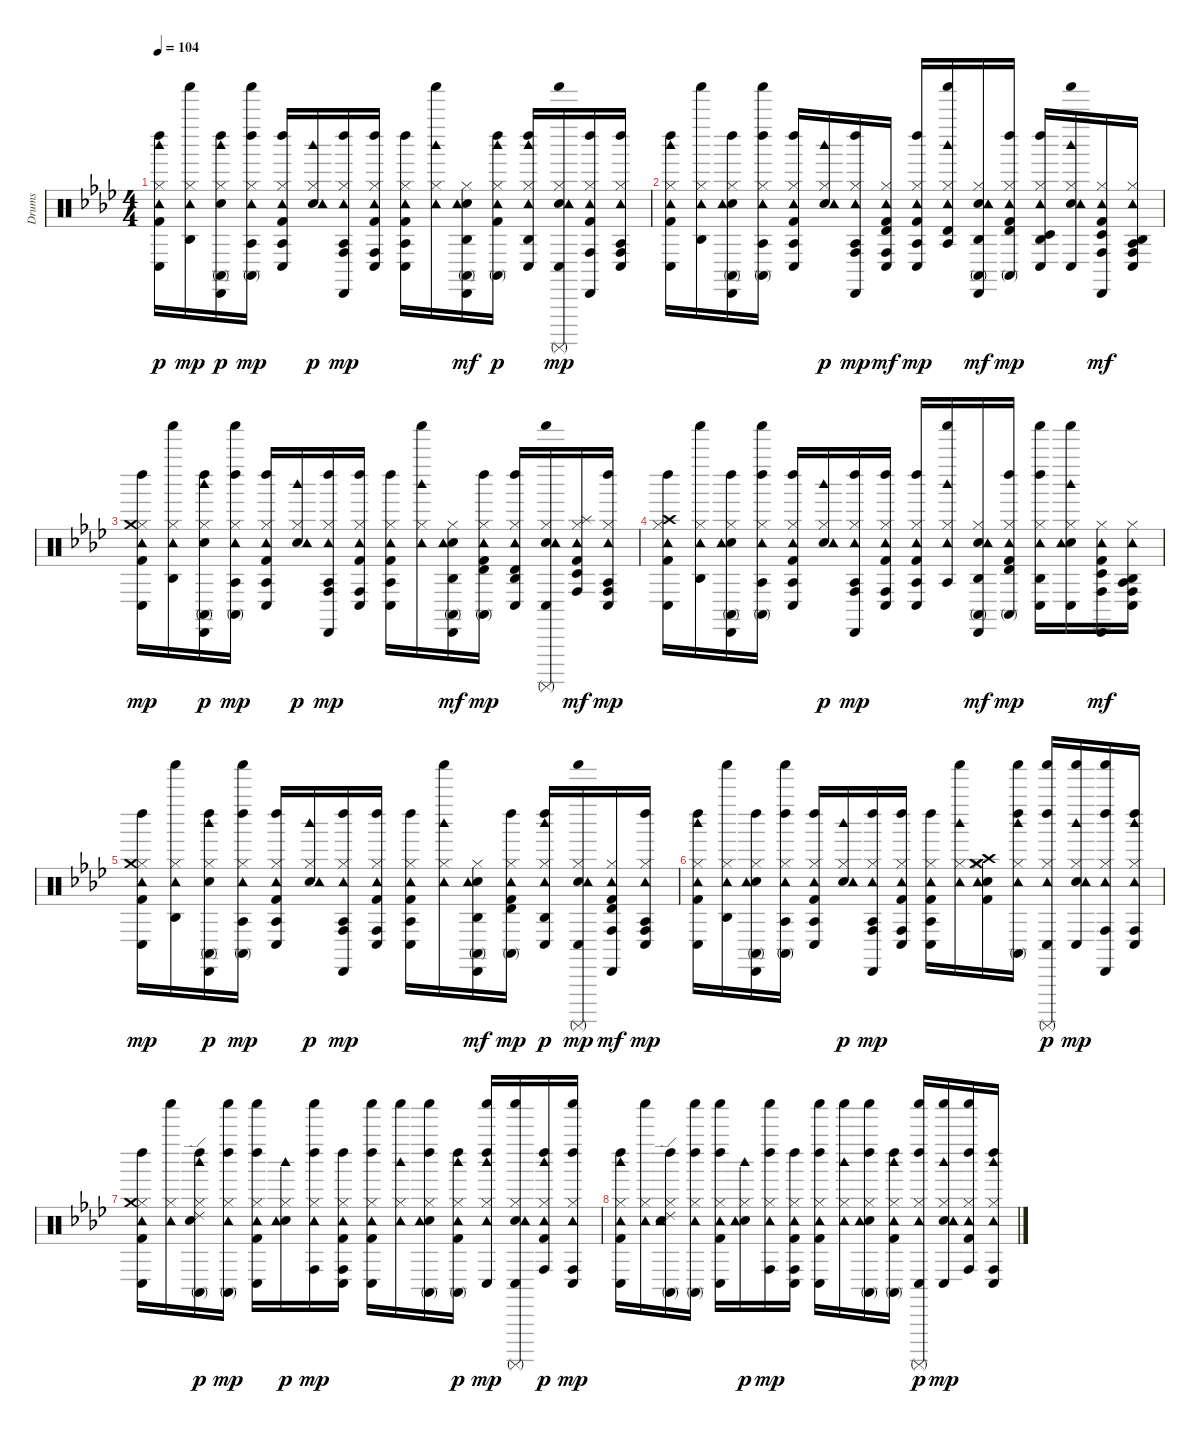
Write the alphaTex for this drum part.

\track ("Drums" "Drums") {instrument percussion}
\staff {score}
\articulation defaults
\ts (4 4)
\tempo 104
\clef neutral
\ks ab
("Kick (hit) 2" "Hi-Hat (closed)" "Tambourine (hit)" "Conga low (hit)" "Left Maraca (hit)" "Woodblock high (hit)").16{dy p} ("Hi-Hat (closed)" "Tambourine (hit)" "Agogo high (hit)" "Shaker (hit)").16{dy mp} ("Hand Clap (hit)" "Hi-Hat (closed)" "Conga high (mute)" "Cabasa (hit)" "Left Maraca (hit)" "Woodblock high (hit)").16{dy p} ("Hi-Hat (closed)" "Tambourine (hit)" "Conga high (mute)" "Agogo tow (hit)" "Left Maraca (hit)" "Shaker (hit)").16{dy mp} ("Kick (hit) 2" "Hi-Hat (closed)" "Tambourine (hit)" "Conga low (hit)" "Agogo tow (hit)" "Left Maraca (hit)").16 ("Hand Clap (hit)" "Hi-Hat (closed)" "Tambourine (hit)" "Woodblock high (hit)").16{dy p} ("Hi-Hat (closed)" "Tambourine (hit)" "Conga high (hit)" "Agogo tow (hit)" "Cabasa (hit)" "Left Maraca (hit)").16{dy mp} ("Kick (hit) 2" "Hi-Hat (closed)" "Tambourine (hit)" "Conga high (hit)" "Conga low (hit)" "Left Maraca (hit)").16 ("Kick (hit) 2" "Hi-Hat (closed)" "Tambourine (hit)" "Conga low (hit)" "Agogo tow (hit)" "Left Maraca (hit)").16 ("Hi-Hat (closed)" "Tambourine (hit)" "Woodblock high (hit)" "Shaker (hit)").16 ("Hand Clap (hit)" "Hi-Hat (closed)" "Tambourine (hit)" "Conga high (mute)" "Agogo high (hit)" "Cabasa (hit)").16{dy mf} ("Kick (hit) 2" "Hi-Hat (closed)" "Tambourine (hit)" "Conga high (mute)" "Left Maraca (hit)" "Woodblock high (hit)").16{dy p} ("Hi-Hat (closed)" "Tambourine (hit)" "Conga low (hit)" "Agogo high (hit)" "Left Maraca (hit)" "Woodblock high (hit)").16 ("Hand Clap (hit)" "Hi-Hat (closed)" "Tambourine (hit)" "Conga low (hit)" "Shaker (hit)" "Surdo (mute)").16{dy mp} ("Kick (hit) 2" "Hi-Hat (closed)" "Tambourine (hit)" "Conga high (hit)" "Cabasa (hit)" "Left Maraca (hit)").16 ("Hi-Hat (closed)" "Tambourine (hit)" "Conga high (hit)" "Conga low (hit)" "Agogo tow (hit)" "Left Maraca (hit)").16 |
("Kick (hit) 2" "Hi-Hat (closed)" "Tambourine (hit)" "Conga low (hit)" "Left Maraca (hit)" "Woodblock high (hit)").16 ("Hi-Hat (closed)" "Tambourine (hit)" "Agogo high (hit)" "Shaker (hit)").16 ("Hand Clap (hit)" "Hi-Hat (closed)" "Tambourine (hit)" "Conga high (mute)" "Cabasa (hit)" "Left Maraca (hit)").16 ("Hi-Hat (closed)" "Tambourine (hit)" "Conga high (mute)" "Agogo tow (hit)" "Left Maraca (hit)" "Shaker (hit)").16 ("Kick (hit) 2" "Hi-Hat (closed)" "Tambourine (hit)" "Conga low (hit)" "Agogo tow (hit)" "Left Maraca (hit)").16 ("Hand Clap (hit)" "Hi-Hat (closed)" "Tambourine (hit)" "Woodblock high (hit)").16{dy p} ("Hi-Hat (closed)" "Tambourine (hit)" "Conga high (hit)" "Agogo tow (hit)" "Cabasa (hit)" "Left Maraca (hit)").16{dy mp} ("Kick (hit) 2" "Hi-Hat (closed)" "Tambourine (hit)" "Conga high (hit)" "Conga low (hit)" "Timbale high (hit)").16{dy mf} ("Kick (hit) 2" "Hi-Hat (closed)" "Tambourine (hit)" "Conga low (hit)" "Agogo tow (hit)" "Left Maraca (hit)").16{dy mp} ("Hi-Hat (closed)" "Tambourine (hit)" "Timbale high (hit)" "Agogo tow (hit)" "Woodblock high (hit)" "Shaker (hit)").16 ("Hand Clap (hit)" "Hi-Hat (closed)" "Tambourine (hit)" "Conga high (mute)" "Agogo high (hit)" "Cabasa (hit)").16{dy mf} ("Kick (hit) 2" "Hi-Hat (closed)" "Tambourine (hit)" "Conga high (mute)" "Timbale high (hit)" "Left Maraca (hit)").16{dy mp} ("Hi-Hat (closed)" "Tambourine (hit)" "Conga low (hit)" "Timbale low (hit)" "Agogo high (hit)" "Left Maraca (hit)").16 ("Hand Clap (hit)" "Hi-Hat (closed)" "Tambourine (hit)" "Conga low (hit)" "Woodblock high (hit)" "Shaker (hit)").16 ("Kick (hit) 2" "Hi-Hat (closed)" "Tambourine (hit)" "Conga high (hit)" "Timbale low (hit)" "Cabasa (hit)").16{dy mf} ("Hi-Hat (closed)" "Tambourine (hit)" "Conga high (hit)" "Conga low (hit)" "Agogo high (hit)" "Agogo tow (hit)").16 |
("Kick (hit) 2" "Hi-Hat (closed)" "Tambourine (hit)" "Crash medium (hit)" "Conga low (hit)" "Left Maraca (hit)").16{dy mp} ("Hi-Hat (closed)" "Tambourine (hit)" "Agogo high (hit)" "Shaker (hit)").16 ("Hand Clap (hit)" "Hi-Hat (closed)" "Conga high (mute)" "Cabasa (hit)" "Left Maraca (hit)" "Woodblock high (hit)").16{dy p} ("Hi-Hat (closed)" "Tambourine (hit)" "Conga high (mute)" "Agogo tow (hit)" "Left Maraca (hit)" "Shaker (hit)").16{dy mp} ("Kick (hit) 2" "Hi-Hat (closed)" "Tambourine (hit)" "Conga low (hit)" "Agogo tow (hit)" "Left Maraca (hit)").16 ("Hand Clap (hit)" "Hi-Hat (closed)" "Tambourine (hit)" "Woodblock high (hit)").16{dy p} ("Hi-Hat (closed)" "Tambourine (hit)" "Conga high (hit)" "Agogo tow (hit)" "Cabasa (hit)" "Left Maraca (hit)").16{dy mp} ("Kick (hit) 2" "Hi-Hat (closed)" "Tambourine (hit)" "Conga high (hit)" "Conga low (hit)" "Left Maraca (hit)").16 ("Kick (hit) 2" "Hi-Hat (closed)" "Tambourine (hit)" "Conga low (hit)" "Agogo tow (hit)" "Left Maraca (hit)").16 ("Hi-Hat (closed)" "Tambourine (hit)" "Woodblock high (hit)" "Shaker (hit)").16 ("Hand Clap (hit)" "Hi-Hat (closed)" "Tambourine (hit)" "Conga high (mute)" "Agogo high (hit)" "Cabasa (hit)").16{dy mf} ("Kick (hit) 2" "Hi-Hat (closed)" "Tambourine (hit)" "Conga high (mute)" "Timbale high (hit)" "Left Maraca (hit)").16{dy mp} ("Hi-Hat (closed)" "Tambourine (hit)" "Conga low (hit)" "Timbale high (hit)" "Agogo high (hit)" "Left Maraca (hit)").16 ("Hand Clap (hit)" "Hi-Hat (closed)" "Tambourine (hit)" "Conga low (hit)" "Shaker (hit)" "Surdo (mute)").16 ("Kick (hit) 2" "Hi-Hat (closed)" "Tambourine (hit)" "Splash (hit)" "Conga high (hit)" "Timbale low (hit)").16{dy mf} ("Hi-Hat (closed)" "Tambourine (hit)" "Conga high (hit)" "Conga low (hit)" "Agogo tow (hit)" "Left Maraca (hit)").16{dy mp} |
("Kick (hit) 2" "Hi-Hat (closed)" "Crash high (hit)" "Tambourine (hit)" "Conga low (hit)" "Left Maraca (hit)").16 ("Hi-Hat (closed)" "Tambourine (hit)" "Agogo high (hit)" "Shaker (hit)").16 ("Hand Clap (hit)" "Hi-Hat (closed)" "Tambourine (hit)" "Conga high (mute)" "Cabasa (hit)" "Left Maraca (hit)").16 ("Hi-Hat (closed)" "Tambourine (hit)" "Conga high (mute)" "Agogo tow (hit)" "Left Maraca (hit)" "Shaker (hit)").16 ("Kick (hit) 2" "Hi-Hat (closed)" "Tambourine (hit)" "Conga low (hit)" "Agogo tow (hit)" "Left Maraca (hit)").16 ("Hand Clap (hit)" "Hi-Hat (closed)" "Tambourine (hit)" "Woodblock high (hit)").16{dy p} ("Hi-Hat (closed)" "Tambourine (hit)" "Conga high (hit)" "Agogo tow (hit)" "Cabasa (hit)" "Left Maraca (hit)").16{dy mp} ("Kick (hit) 2" "Hi-Hat (closed)" "Tambourine (hit)" "Conga high (hit)" "Conga low (hit)" "Left Maraca (hit)").16 ("Kick (hit) 2" "Hi-Hat (closed)" "Tambourine (hit)" "Conga low (hit)" "Agogo tow (hit)" "Left Maraca (hit)").16 ("Hi-Hat (closed)" "Tambourine (hit)" "Agogo tow (hit)" "Woodblock high (hit)" "Shaker (hit)").16 ("Hand Clap (hit)" "Hi-Hat (closed)" "Tambourine (hit)" "Conga high (mute)" "Agogo high (hit)" "Cabasa (hit)").16{dy mf} ("Kick (hit) 2" "Hi-Hat (closed)" "Tambourine (hit)" "Conga high (mute)" "Timbale high (hit)" "Left Maraca (hit)").16{dy mp} ("Hi-Hat (closed)" "Tambourine (hit)" "Conga low (hit)" "Agogo high (hit)" "Left Maraca (hit)" "Shaker (hit)").16 ("Hand Clap (hit)" "Hi-Hat (closed)" "Tambourine (hit)" "Conga low (hit)" "Woodblock high (hit)" "Shaker (hit)").16 ("Kick (hit) 2" "Hi-Hat (closed)" "Tambourine (hit)" "Conga high (hit)" "Timbale low (hit)" "Cabasa (hit)").16{dy mf} ("Hi-Hat (closed)" "Tambourine (hit)" "Conga high (hit)" "Conga low (hit)" "Agogo high (hit)" "Agogo tow (hit)").16 |
("Kick (hit) 2" "Hi-Hat (closed)" "Tambourine (hit)" "Crash medium (hit)" "Conga low (hit)" "Left Maraca (hit)").16{dy mp} ("Hi-Hat (closed)" "Tambourine (hit)" "Agogo high (hit)" "Shaker (hit)").16 ("Hand Clap (hit)" "Hi-Hat (closed)" "Conga high (mute)" "Cabasa (hit)" "Left Maraca (hit)" "Woodblock high (hit)").16{dy p} ("Hi-Hat (closed)" "Tambourine (hit)" "Conga high (mute)" "Agogo tow (hit)" "Left Maraca (hit)" "Shaker (hit)").16{dy mp} ("Kick (hit) 2" "Hi-Hat (closed)" "Tambourine (hit)" "Conga low (hit)" "Agogo tow (hit)" "Left Maraca (hit)").16 ("Hand Clap (hit)" "Hi-Hat (closed)" "Tambourine (hit)" "Woodblock high (hit)").16{dy p} ("Hi-Hat (closed)" "Tambourine (hit)" "Conga high (hit)" "Agogo tow (hit)" "Cabasa (hit)" "Left Maraca (hit)").16{dy mp} ("Kick (hit) 2" "Hi-Hat (closed)" "Tambourine (hit)" "Conga high (hit)" "Conga low (hit)" "Left Maraca (hit)").16 ("Kick (hit) 2" "Hi-Hat (closed)" "Tambourine (hit)" "Conga low (hit)" "Agogo tow (hit)" "Left Maraca (hit)").16 ("Hi-Hat (closed)" "Tambourine (hit)" "Woodblock high (hit)" "Shaker (hit)").16 ("Hand Clap (hit)" "Hi-Hat (closed)" "Tambourine (hit)" "Conga high (mute)" "Agogo high (hit)" "Cabasa (hit)").16{dy mf} ("Kick (hit) 2" "Hi-Hat (closed)" "Tambourine (hit)" "Conga high (mute)" "Timbale high (hit)" "Left Maraca (hit)").16{dy mp} ("Hi-Hat (closed)" "Tambourine (hit)" "Conga low (hit)" "Agogo high (hit)" "Left Maraca (hit)" "Woodblock high (hit)").16{dy p} ("Hand Clap (hit)" "Hi-Hat (closed)" "Tambourine (hit)" "Conga low (hit)" "Shaker (hit)" "Surdo (mute)").16{dy mp} ("Kick (hit) 2" "Hi-Hat (closed)" "Tambourine (hit)" "Conga high (hit)" "Timbale high (hit)" "Cabasa (hit)").16{dy mf} ("Hi-Hat (closed)" "Tambourine (hit)" "Conga high (hit)" "Conga low (hit)" "Agogo tow (hit)" "Left Maraca (hit)").16{dy mp} |
("Kick (hit) 2" "Hi-Hat (closed)" "Tambourine (hit)" "Conga low (hit)" "Left Maraca (hit)" "Woodblock high (hit)").16 ("Hi-Hat (closed)" "Tambourine (hit)" "Agogo high (hit)" "Shaker (hit)").16 ("Hand Clap (hit)" "Hi-Hat (closed)" "Tambourine (hit)" "Conga high (mute)" "Cabasa (hit)" "Left Maraca (hit)").16 ("Hi-Hat (closed)" "Tambourine (hit)" "Conga high (mute)" "Agogo tow (hit)" "Left Maraca (hit)" "Shaker (hit)").16 ("Kick (hit) 2" "Hi-Hat (closed)" "Tambourine (hit)" "Conga low (hit)" "Agogo tow (hit)" "Left Maraca (hit)").16 ("Hand Clap (hit)" "Hi-Hat (closed)" "Tambourine (hit)" "Woodblock high (hit)").16{dy p} ("Hi-Hat (closed)" "Tambourine (hit)" "Conga high (hit)" "Agogo tow (hit)" "Cabasa (hit)" "Left Maraca (hit)").16{dy mp} ("Kick (hit) 2" "Hi-Hat (closed)" "Tambourine (hit)" "Conga high (hit)" "Conga low (hit)" "Left Maraca (hit)").16 ("Kick (hit) 2" "Hi-Hat (closed)" "Tambourine (hit)" "Conga low (hit)" "Agogo tow (hit)" "Left Maraca (hit)").16 ("Hi-Hat (closed)" "Tambourine (hit)" "Woodblock high (hit)" "Shaker (hit)").16 ("Kick (hit) 2" "Hand Clap (hit)" "Hi-Hat (closed)" "Crash high (hit)" "Tambourine (hit)" "Crash medium (hit)").16 ("Hi-Hat (closed)" "Tambourine (hit)" "Conga high (mute)" "Left Maraca (hit)" "Woodblock high (hit)" "Shaker (hit)").16 ("Hi-Hat (closed)" "Tambourine (hit)" "Conga low (hit)" "Left Maraca (hit)" "Shaker (hit)" "Surdo (mute)").16{dy p} ("Hand Clap (hit)" "Hi-Hat (closed)" "Tambourine (hit)" "Conga low (hit)" "Woodblock high (hit)" "Shaker (hit)").16{dy mp} ("Hi-Hat (closed)" "Tambourine (hit)" "Conga high (hit)" "Cabasa (hit)" "Left Maraca (hit)" "Shaker (hit)").16 ("Hi-Hat (closed)" "Tambourine (hit)" "Conga high (hit)" "Conga low (hit)" "Left Maraca (hit)" "Woodblock high (hit)").16 |
("Kick (hit) 2" "Hi-Hat (closed)" "Tambourine (hit)" "Crash medium (hit)" "Conga low (hit)" "Left Maraca (hit)").16 ("Hi-Hat (closed)" "Tambourine (hit)" "Shaker (hit)").16 ("Hand Clap (hit)" "Hi-Hat (closed)" "Ride (edge) 2" "Conga high (mute)" "Left Maraca (hit)" "Woodblock high (hit)").16{dy p} ("Hi-Hat (closed)" "Tambourine (hit)" "Conga high (mute)" "Left Maraca (hit)" "Shaker (hit)").16{dy mp} ("Kick (hit) 2" "Hi-Hat (closed)" "Tambourine (hit)" "Conga low (hit)" "Left Maraca (hit)" "Shaker (hit)").16 ("Hand Clap (hit)" "Hi-Hat (closed)" "Tambourine (hit)" "Woodblock high (hit)").16{dy p} ("Hi-Hat (closed)" "Tambourine (hit)" "Conga high (hit)" "Left Maraca (hit)" "Shaker (hit)").16{dy mp} ("Kick (hit) 2" "Hi-Hat (closed)" "Tambourine (hit)" "Conga high (hit)" "Conga low (hit)" "Left Maraca (hit)").16 ("Kick (hit) 2" "Hi-Hat (closed)" "Tambourine (hit)" "Conga low (hit)" "Left Maraca (hit)" "Shaker (hit)").16 ("Hi-Hat (closed)" "Tambourine (hit)" "Woodblock high (hit)" "Shaker (hit)").16 ("Hand Clap (hit)" "Hi-Hat (closed)" "Tambourine (hit)" "Conga high (mute)" "Left Maraca (hit)" "Shaker (hit)").16 ("Kick (hit) 2" "Hi-Hat (closed)" "Tambourine (hit)" "Conga high (mute)" "Left Maraca (hit)" "Woodblock high (hit)").16{dy p} ("Hi-Hat (closed)" "Tambourine (hit)" "Conga low (hit)" "Left Maraca (hit)" "Woodblock high (hit)" "Shaker (hit)").16{dy mp} ("Hand Clap (hit)" "Hi-Hat (closed)" "Tambourine (hit)" "Conga low (hit)" "Shaker (hit)" "Surdo (mute)").16 ("Kick (hit) 2" "Hi-Hat (closed)" "Tambourine (hit)" "Conga high (hit)" "Left Maraca (hit)" "Woodblock high (hit)").16{dy p} ("Hi-Hat (closed)" "Tambourine (hit)" "Conga high (hit)" "Conga low (hit)" "Left Maraca (hit)" "Shaker (hit)").16{dy mp} |
("Kick (hit) 2" "Hi-Hat (closed)" "Tambourine (hit)" "Conga low (hit)" "Left Maraca (hit)" "Woodblock high (hit)").16 ("Hi-Hat (closed)" "Tambourine (hit)" "Shaker (hit)").16 ("Hand Clap (hit)" "Hi-Hat (closed)" "Tambourine (hit)" "Ride (edge) 2" "Conga high (mute)" "Left Maraca (hit)").16 ("Hi-Hat (closed)" "Tambourine (hit)" "Conga high (mute)" "Left Maraca (hit)" "Shaker (hit)").16 ("Kick (hit) 2" "Hi-Hat (closed)" "Tambourine (hit)" "Conga low (hit)" "Left Maraca (hit)" "Shaker (hit)").16 ("Hand Clap (hit)" "Hi-Hat (closed)" "Tambourine (hit)" "Woodblock high (hit)").16{dy p} ("Hi-Hat (closed)" "Tambourine (hit)" "Conga high (hit)" "Left Maraca (hit)" "Shaker (hit)").16{dy mp} ("Kick (hit) 2" "Hi-Hat (closed)" "Tambourine (hit)" "Conga high (hit)" "Conga low (hit)" "Left Maraca (hit)").16 ("Kick (hit) 2" "Hi-Hat (closed)" "Tambourine (hit)" "Conga low (hit)" "Left Maraca (hit)" "Shaker (hit)").16 ("Hi-Hat (closed)" "Tambourine (hit)" "Woodblock high (hit)" "Shaker (hit)").16 ("Hand Clap (hit)" "Hi-Hat (closed)" "Tambourine (hit)" "Conga high (mute)" "Left Maraca (hit)" "Shaker (hit)").16 ("Kick (hit) 2" "Hi-Hat (closed)" "Tambourine (hit)" "Conga high (mute)" "Left Maraca (hit)" "Woodblock high (hit)").16 ("Hi-Hat (closed)" "Tambourine (hit)" "Conga low (hit)" "Left Maraca (hit)" "Shaker (hit)" "Surdo (mute)").16{dy p} ("Hand Clap (hit)" "Hi-Hat (closed)" "Tambourine (hit)" "Conga low (hit)" "Woodblock high (hit)" "Shaker (hit)").16{dy mp} ("Kick (hit) 2" "Hi-Hat (closed)" "Tambourine (hit)" "Conga high (hit)" "Left Maraca (hit)" "Shaker (hit)").16 ("Hi-Hat (closed)" "Tambourine (hit)" "Conga high (hit)" "Conga low (hit)" "Left Maraca (hit)" "Woodblock high (hit)").16
